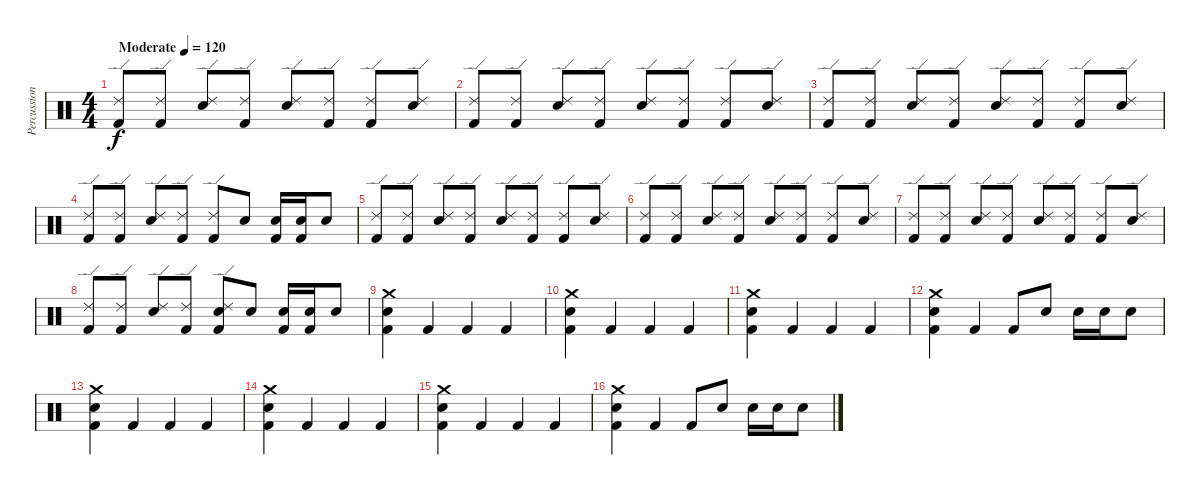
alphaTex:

\track ("Percussion" "Percussion") {instrument percussion}
\staff {score}
\articulation defaults
\ts (4 4)
\tempo (120 "Moderate")
\clef neutral
\ks c
("Kick (hit) 2" "Ride (edge) 2").8{dy f} ("Kick (hit) 2" "Ride (edge) 2").8 ("Snare (hit) 2" "Ride (edge) 2").8 ("Kick (hit) 2" "Ride (edge) 2").8 ("Snare (hit) 2" "Ride (edge) 2").8 ("Kick (hit) 2" "Ride (edge) 2").8 ("Kick (hit) 2" "Ride (edge) 2").8 ("Snare (hit) 2" "Ride (edge) 2").8 |
("Kick (hit) 2" "Ride (edge) 2").8 ("Kick (hit) 2" "Ride (edge) 2").8 ("Snare (hit) 2" "Ride (edge) 2").8 ("Kick (hit) 2" "Ride (edge) 2").8 ("Snare (hit) 2" "Ride (edge) 2").8 ("Kick (hit) 2" "Ride (edge) 2").8 ("Kick (hit) 2" "Ride (edge) 2").8 ("Snare (hit) 2" "Ride (edge) 2").8 |
("Kick (hit) 2" "Ride (edge) 2").8 ("Kick (hit) 2" "Ride (edge) 2").8 ("Snare (hit) 2" "Ride (edge) 2").8 ("Kick (hit) 2" "Ride (edge) 2").8 ("Snare (hit) 2" "Ride (edge) 2").8 ("Kick (hit) 2" "Ride (edge) 2").8 ("Kick (hit) 2" "Ride (edge) 2").8 ("Snare (hit) 2" "Ride (edge) 2").8 |
("Kick (hit) 2" "Ride (edge) 2").8 ("Kick (hit) 2" "Ride (edge) 2").8 ("Snare (hit) 2" "Ride (edge) 2").8 ("Kick (hit) 2" "Ride (edge) 2").8 ("Kick (hit) 2" "Ride (edge) 2").8 "Snare (hit) 2".8 ("Kick (hit) 2" "Snare (hit) 2").16 ("Kick (hit) 2" "Snare (hit) 2").16 "Snare (hit) 2".8 |
("Kick (hit) 2" "Ride (edge) 2").8 ("Kick (hit) 2" "Ride (edge) 2").8 ("Snare (hit) 2" "Ride (edge) 2").8 ("Kick (hit) 2" "Ride (edge) 2").8 ("Snare (hit) 2" "Ride (edge) 2").8 ("Kick (hit) 2" "Ride (edge) 2").8 ("Kick (hit) 2" "Ride (edge) 2").8 ("Snare (hit) 2" "Ride (edge) 2").8 |
("Kick (hit) 2" "Ride (edge) 2").8 ("Kick (hit) 2" "Ride (edge) 2").8 ("Snare (hit) 2" "Ride (edge) 2").8 ("Kick (hit) 2" "Ride (edge) 2").8 ("Snare (hit) 2" "Ride (edge) 2").8 ("Kick (hit) 2" "Ride (edge) 2").8 ("Kick (hit) 2" "Ride (edge) 2").8 ("Snare (hit) 2" "Ride (edge) 2").8 |
("Kick (hit) 2" "Ride (edge) 2").8 ("Kick (hit) 2" "Ride (edge) 2").8 ("Snare (hit) 2" "Ride (edge) 2").8 ("Kick (hit) 2" "Ride (edge) 2").8 ("Snare (hit) 2" "Ride (edge) 2").8 ("Kick (hit) 2" "Ride (edge) 2").8 ("Kick (hit) 2" "Ride (edge) 2").8 ("Snare (hit) 2" "Ride (edge) 2").8 |
("Kick (hit) 2" "Ride (edge) 2").8 ("Kick (hit) 2" "Ride (edge) 2").8 ("Snare (hit) 2" "Ride (edge) 2").8 ("Kick (hit) 2" "Ride (edge) 2").8 ("Kick (hit) 2" "Snare (hit) 2" "Ride (edge) 2").8 "Snare (hit) 2".8 ("Kick (hit) 2" "Snare (hit) 2").16 ("Kick (hit) 2" "Snare (hit) 2").16 "Snare (hit) 2".8 |
("Kick (hit) 2" "Snare (hit) 2" "Crash medium (hit)").4 "Kick (hit) 2".4 "Kick (hit) 2".4 "Kick (hit) 2".4 |
("Kick (hit) 2" "Snare (hit) 2" "Crash medium (hit)").4 "Kick (hit) 2".4 "Kick (hit) 2".4 "Kick (hit) 2".4 |
("Kick (hit) 2" "Snare (hit) 2" "Crash medium (hit)").4 "Kick (hit) 2".4 "Kick (hit) 2".4 "Kick (hit) 2".4 |
("Kick (hit) 2" "Snare (hit) 2" "Crash medium (hit)").4 "Kick (hit) 2".4 "Kick (hit) 2".8 "Snare (hit) 2".8 "Snare (hit) 2".16 "Snare (hit) 2".16 "Snare (hit) 2".8 |
("Kick (hit) 2" "Snare (hit) 2" "Crash medium (hit)").4 "Kick (hit) 2".4 "Kick (hit) 2".4 "Kick (hit) 2".4 |
("Kick (hit) 2" "Snare (hit) 2" "Crash medium (hit)").4 "Kick (hit) 2".4 "Kick (hit) 2".4 "Kick (hit) 2".4 |
("Kick (hit) 2" "Snare (hit) 2" "Crash medium (hit)").4 "Kick (hit) 2".4 "Kick (hit) 2".4 "Kick (hit) 2".4 |
("Kick (hit) 2" "Snare (hit) 2" "Crash medium (hit)").4 "Kick (hit) 2".4 "Kick (hit) 2".8 "Snare (hit) 2".8 "Snare (hit) 2".16 "Snare (hit) 2".16 "Snare (hit) 2".8
